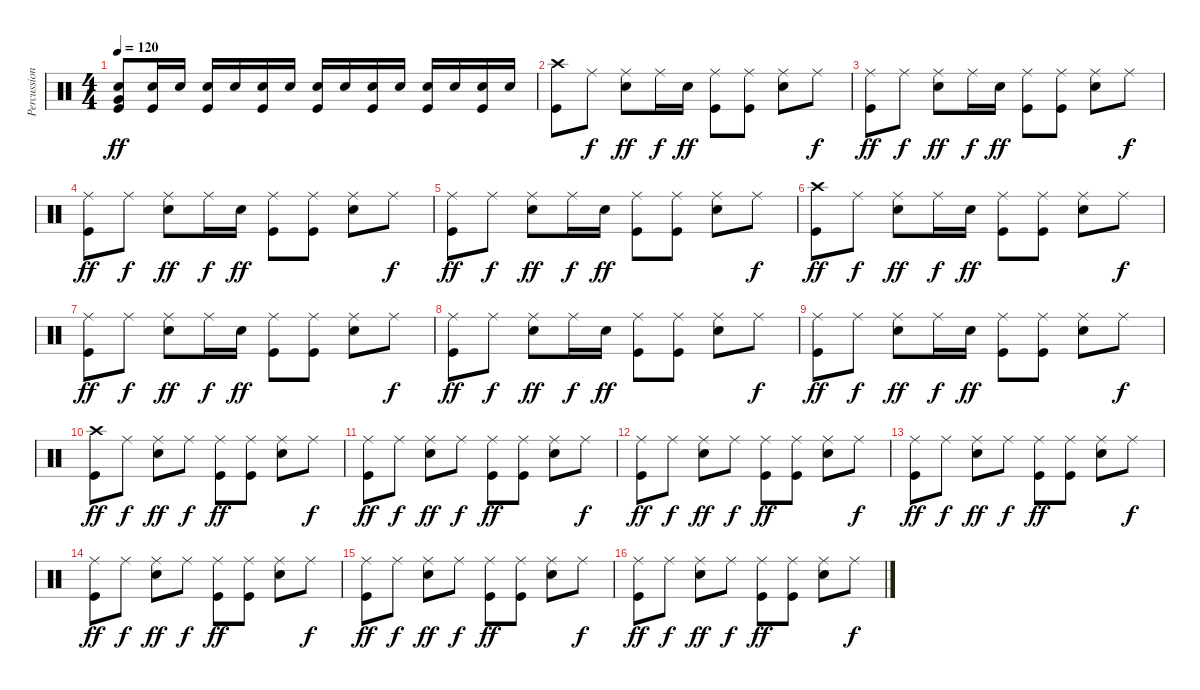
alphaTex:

\track ("Percussion" "Percussion") {instrument percussion}
\staff {score}
\articulation defaults
\ts (4 4)
\tempo 120
\clef neutral
\ks c
("Snare (hit) 2" "Very Low Tom (hit)" "Kick (hit)").8{dy ff} ("Snare (hit) 2" "Kick (hit)").16 "Snare (hit) 2".16 ("Snare (hit) 2" "Kick (hit)").16 "Snare (hit) 2".16 ("Snare (hit) 2" "Kick (hit)").16 "Snare (hit) 2".16 ("Snare (hit) 2" "Kick (hit)").16 "Snare (hit) 2".16 ("Snare (hit) 2" "Kick (hit)").16 "Snare (hit) 2".16 ("Snare (hit) 2" "Kick (hit)").16 "Snare (hit) 2".16 ("Snare (hit) 2" "Kick (hit)").16 "Snare (hit) 2".16 |
("Crash high (hit)" "Kick (hit)").8 "Ride (middle)".8{dy f} ("Ride (middle)" "Snare (hit) 2").8{dy ff} "Ride (middle)".16{dy f} "Snare (hit) 2".16{dy ff} ("Ride (middle)" "Kick (hit)").8 ("Ride (middle)" "Kick (hit)").8 ("Ride (middle)" "Snare (hit) 2").8 "Ride (middle)".8{dy f} |
("Ride (middle)" "Kick (hit)").8{dy ff} "Ride (middle)".8{dy f} ("Ride (middle)" "Snare (hit) 2").8{dy ff} "Ride (middle)".16{dy f} "Snare (hit) 2".16{dy ff} ("Ride (middle)" "Kick (hit)").8 ("Ride (middle)" "Kick (hit)").8 ("Ride (middle)" "Snare (hit) 2").8 "Ride (middle)".8{dy f} |
("Ride (middle)" "Kick (hit)").8{dy ff} "Ride (middle)".8{dy f} ("Ride (middle)" "Snare (hit) 2").8{dy ff} "Ride (middle)".16{dy f} "Snare (hit) 2".16{dy ff} ("Ride (middle)" "Kick (hit)").8 ("Ride (middle)" "Kick (hit)").8 ("Ride (middle)" "Snare (hit) 2").8 "Ride (middle)".8{dy f} |
("Ride (middle)" "Kick (hit)").8{dy ff} "Ride (middle)".8{dy f} ("Ride (middle)" "Snare (hit) 2").8{dy ff} "Ride (middle)".16{dy f} "Snare (hit) 2".16{dy ff} ("Ride (middle)" "Kick (hit)").8 ("Ride (middle)" "Kick (hit)").8 ("Ride (middle)" "Snare (hit) 2").8 "Ride (middle)".8{dy f} |
("Crash high (hit)" "Kick (hit)").8{dy ff} "Ride (middle)".8{dy f} ("Ride (middle)" "Snare (hit) 2").8{dy ff} "Ride (middle)".16{dy f} "Snare (hit) 2".16{dy ff} ("Ride (middle)" "Kick (hit)").8 ("Ride (middle)" "Kick (hit)").8 ("Ride (middle)" "Snare (hit) 2").8 "Ride (middle)".8{dy f} |
("Ride (middle)" "Kick (hit)").8{dy ff} "Ride (middle)".8{dy f} ("Ride (middle)" "Snare (hit) 2").8{dy ff} "Ride (middle)".16{dy f} "Snare (hit) 2".16{dy ff} ("Ride (middle)" "Kick (hit)").8 ("Ride (middle)" "Kick (hit)").8 ("Ride (middle)" "Snare (hit) 2").8 "Ride (middle)".8{dy f} |
("Ride (middle)" "Kick (hit)").8{dy ff} "Ride (middle)".8{dy f} ("Ride (middle)" "Snare (hit) 2").8{dy ff} "Ride (middle)".16{dy f} "Snare (hit) 2".16{dy ff} ("Ride (middle)" "Kick (hit)").8 ("Ride (middle)" "Kick (hit)").8 ("Ride (middle)" "Snare (hit) 2").8 "Ride (middle)".8{dy f} |
("Ride (middle)" "Kick (hit)").8{dy ff} "Ride (middle)".8{dy f} ("Ride (middle)" "Snare (hit) 2").8{dy ff} "Ride (middle)".16{dy f} "Snare (hit) 2".16{dy ff} ("Ride (middle)" "Kick (hit)").8 ("Ride (middle)" "Kick (hit)").8 ("Ride (middle)" "Snare (hit) 2").8 "Ride (middle)".8{dy f} |
("Crash high (hit)" "Kick (hit)").8{dy ff} "Ride (middle)".8{dy f} ("Ride (middle)" "Snare (hit) 2").8{dy ff} "Ride (middle)".8{dy f} ("Ride (middle)" "Kick (hit)").8{dy ff} ("Ride (middle)" "Kick (hit)").8 ("Ride (middle)" "Snare (hit) 2").8 "Ride (middle)".8{dy f} |
("Ride (middle)" "Kick (hit)").8{dy ff} "Ride (middle)".8{dy f} ("Ride (middle)" "Snare (hit) 2").8{dy ff} "Ride (middle)".8{dy f} ("Ride (middle)" "Kick (hit)").8{dy ff} ("Ride (middle)" "Kick (hit)").8 ("Ride (middle)" "Snare (hit) 2").8 "Ride (middle)".8{dy f} |
("Ride (middle)" "Kick (hit)").8{dy ff} "Ride (middle)".8{dy f} ("Ride (middle)" "Snare (hit) 2").8{dy ff} "Ride (middle)".8{dy f} ("Ride (middle)" "Kick (hit)").8{dy ff} ("Ride (middle)" "Kick (hit)").8 ("Ride (middle)" "Snare (hit) 2").8 "Ride (middle)".8{dy f} |
("Ride (middle)" "Kick (hit)").8{dy ff} "Ride (middle)".8{dy f} ("Ride (middle)" "Snare (hit) 2").8{dy ff} "Ride (middle)".8{dy f} ("Ride (middle)" "Kick (hit)").8{dy ff} ("Ride (middle)" "Kick (hit)").8 ("Ride (middle)" "Snare (hit) 2").8 "Ride (middle)".8{dy f} |
("Ride (middle)" "Kick (hit)").8{dy ff} "Ride (middle)".8{dy f} ("Ride (middle)" "Snare (hit) 2").8{dy ff} "Ride (middle)".8{dy f} ("Ride (middle)" "Kick (hit)").8{dy ff} ("Ride (middle)" "Kick (hit)").8 ("Ride (middle)" "Snare (hit) 2").8 "Ride (middle)".8{dy f} |
("Ride (middle)" "Kick (hit)").8{dy ff} "Ride (middle)".8{dy f} ("Ride (middle)" "Snare (hit) 2").8{dy ff} "Ride (middle)".8{dy f} ("Ride (middle)" "Kick (hit)").8{dy ff} ("Ride (middle)" "Kick (hit)").8 ("Ride (middle)" "Snare (hit) 2").8 "Ride (middle)".8{dy f} |
("Ride (middle)" "Kick (hit)").8{dy ff} "Ride (middle)".8{dy f} ("Ride (middle)" "Snare (hit) 2").8{dy ff} "Ride (middle)".8{dy f} ("Ride (middle)" "Kick (hit)").8{dy ff} ("Ride (middle)" "Kick (hit)").8 ("Ride (middle)" "Snare (hit) 2").8 "Ride (middle)".8{dy f}
